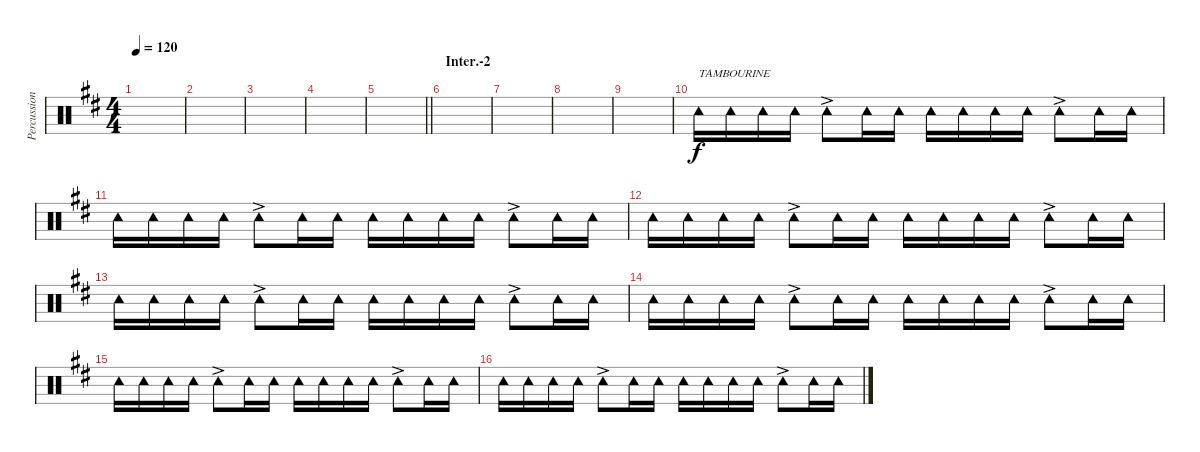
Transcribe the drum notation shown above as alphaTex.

\track ("Percussion (Tainaka Ritsu)" "Percussion") {instrument percussion}
\staff {score}
\articulation defaults
\ts (4 4)
\tempo 120
\clef neutral
\ks d
|
|
|
|
\barLineRight lightlight
|
\section ("" "Inter.-2")
|
|
|
|
"Tambourine (hit)".16{txt "TAMBOURINE"} "Tambourine (hit)".16 "Tambourine (hit)".16 "Tambourine (hit)".16 "Tambourine (hit)"{ac}.8 "Tambourine (hit)".16 "Tambourine (hit)".16 "Tambourine (hit)".16 "Tambourine (hit)".16 "Tambourine (hit)".16 "Tambourine (hit)".16 "Tambourine (hit)"{ac}.8 "Tambourine (hit)".16 "Tambourine (hit)".16 |
"Tambourine (hit)".16 "Tambourine (hit)".16 "Tambourine (hit)".16 "Tambourine (hit)".16 "Tambourine (hit)"{ac}.8 "Tambourine (hit)".16 "Tambourine (hit)".16 "Tambourine (hit)".16 "Tambourine (hit)".16 "Tambourine (hit)".16 "Tambourine (hit)".16 "Tambourine (hit)"{ac}.8 "Tambourine (hit)".16 "Tambourine (hit)".16 |
"Tambourine (hit)".16 "Tambourine (hit)".16 "Tambourine (hit)".16 "Tambourine (hit)".16 "Tambourine (hit)"{ac}.8 "Tambourine (hit)".16 "Tambourine (hit)".16 "Tambourine (hit)".16 "Tambourine (hit)".16 "Tambourine (hit)".16 "Tambourine (hit)".16 "Tambourine (hit)"{ac}.8 "Tambourine (hit)".16 "Tambourine (hit)".16 |
"Tambourine (hit)".16 "Tambourine (hit)".16 "Tambourine (hit)".16 "Tambourine (hit)".16 "Tambourine (hit)"{ac}.8 "Tambourine (hit)".16 "Tambourine (hit)".16 "Tambourine (hit)".16 "Tambourine (hit)".16 "Tambourine (hit)".16 "Tambourine (hit)".16 "Tambourine (hit)"{ac}.8 "Tambourine (hit)".16 "Tambourine (hit)".16 |
"Tambourine (hit)".16 "Tambourine (hit)".16 "Tambourine (hit)".16 "Tambourine (hit)".16 "Tambourine (hit)"{ac}.8 "Tambourine (hit)".16 "Tambourine (hit)".16 "Tambourine (hit)".16 "Tambourine (hit)".16 "Tambourine (hit)".16 "Tambourine (hit)".16 "Tambourine (hit)"{ac}.8 "Tambourine (hit)".16 "Tambourine (hit)".16 |
"Tambourine (hit)".16 "Tambourine (hit)".16 "Tambourine (hit)".16 "Tambourine (hit)".16 "Tambourine (hit)"{ac}.8 "Tambourine (hit)".16 "Tambourine (hit)".16 "Tambourine (hit)".16 "Tambourine (hit)".16 "Tambourine (hit)".16 "Tambourine (hit)".16 "Tambourine (hit)"{ac}.8 "Tambourine (hit)".16 "Tambourine (hit)".16 |
"Tambourine (hit)".16 "Tambourine (hit)".16 "Tambourine (hit)".16 "Tambourine (hit)".16 "Tambourine (hit)"{ac}.8 "Tambourine (hit)".16 "Tambourine (hit)".16 "Tambourine (hit)".16 "Tambourine (hit)".16 "Tambourine (hit)".16 "Tambourine (hit)".16 "Tambourine (hit)"{ac}.8 "Tambourine (hit)".16 "Tambourine (hit)".16
